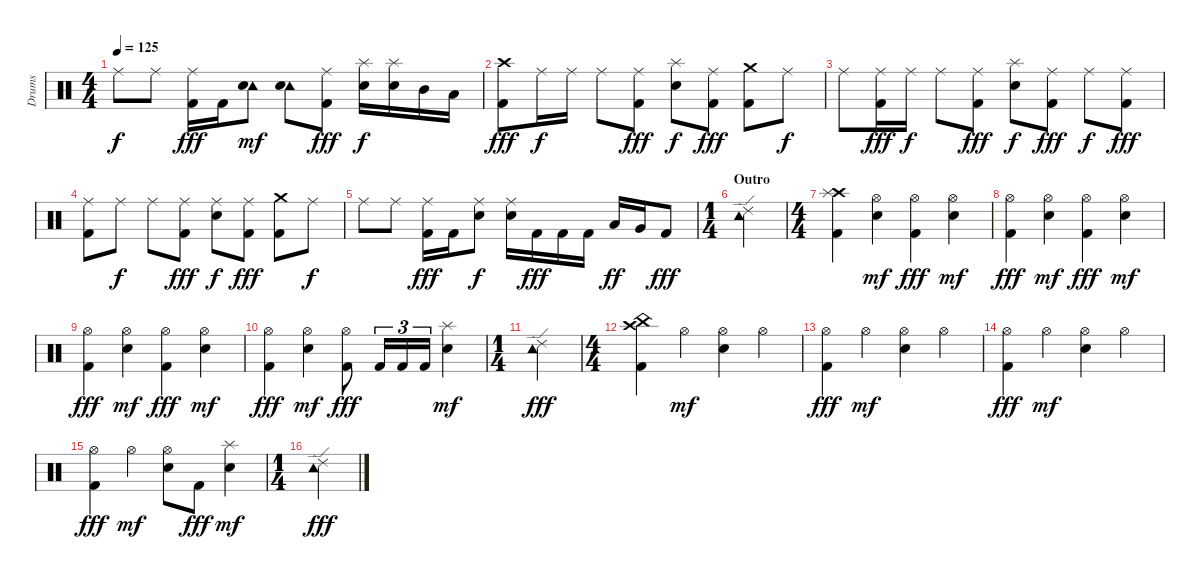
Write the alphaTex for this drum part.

\track ("Drums" "Drums") {instrument percussion}
\staff {score}
\articulation defaults
\ts (4 4)
\tempo 125
\clef neutral
\ks c "Ride (middle)".8{dy f} "Ride (middle)".8
("Ride (middle)" "Kick (hit) 2").16{dy fff} "Kick (hit) 2".16 ("Tambourine (hit)" "Electric Snare (hit)").8{dy mf} ("Tambourine (hit)" "Electric Snare (hit)").8 ("Ride (middle)" "Kick (hit) 2").8{dy fff} ("Splash (hit)" "Electric Snare (hit)").16{dy f} ("Splash (hit)" "Electric Snare (hit)").16 "Mid Tom (hit)".16 "Low Tom (hit)".16 |
("Crash high (hit)" "Kick (hit) 2").8{dy fff} "Ride (middle)".16{dy f} "Ride (middle)".16 "Ride (middle)".8 ("Ride (middle)" "Kick (hit) 2").8{dy fff} ("Splash (hit)" "Electric Snare (hit)").8{dy f} ("Ride (middle)" "Kick (hit) 2").8{dy fff} ("Crash medium (hit)" "Kick (hit) 2").8 "Ride (middle)".8{dy f} |
"Ride (middle)".8 ("Ride (middle)" "Kick (hit) 2").16{dy fff} "Ride (middle)".16{dy f} "Ride (middle)".8 ("Ride (middle)" "Kick (hit) 2").8{dy fff} ("Splash (hit)" "Electric Snare (hit)").8{dy f} ("Ride (middle)" "Kick (hit) 2").8{dy fff} "Ride (middle)".8{dy f} ("Ride (middle)" "Kick (hit) 2").8{dy fff} |
("Ride (middle)" "Kick (hit) 2").8 "Ride (middle)".8{dy f} "Ride (middle)".8 ("Ride (middle)" "Kick (hit) 2").8{dy fff} ("Ride (middle)" "Electric Snare (hit)").8{dy f} ("Ride (middle)" "Kick (hit) 2").8{dy fff} ("Crash medium (hit)" "Kick (hit) 2").8 "Ride (middle)".8{dy f} |
"Ride (middle)".8 "Ride (middle)".8 ("Ride (middle)" "Kick (hit) 2").16{dy fff} "Kick (hit) 2".16 ("Ride (middle)" "Electric Snare (hit)").8{dy f} ("Ride (middle)" "Electric Snare (hit)").16 "Kick (hit) 2".16{dy fff} "Kick (hit) 2".16 "Kick (hit) 2".16 "Low Tom (hit)".16{dy ff} "Very Low Tom (hit)".16 "Kick (hit) 2".8{dy fff} |
\ts (1 4)
\section ("" "Outro")
("Tambourine (hit)" "Ride (edge) 2").4 |
\ts (4 4)
("Crash high (hit)" "Splash (hit)" "Kick (hit) 2").4 ("Hi-Hat (open)" "Electric Snare (hit)").4{dy mf} ("Hi-Hat (open)" "Kick (hit) 2").4{dy fff} ("Hi-Hat (open)" "Electric Snare (hit)").4{dy mf} |
("Hi-Hat (open)" "Kick (hit) 2").4{dy fff} ("Hi-Hat (open)" "Electric Snare (hit)").4{dy mf} ("Hi-Hat (open)" "Kick (hit) 2").4{dy fff} ("Hi-Hat (open)" "Electric Snare (hit)").4{dy mf} |
("Hi-Hat (open)" "Kick (hit) 2").4{dy fff} ("Hi-Hat (open)" "Electric Snare (hit)").4{dy mf} ("Hi-Hat (open)" "Kick (hit) 2").4{dy fff} ("Hi-Hat (open)" "Electric Snare (hit)").4{dy mf} |
("Hi-Hat (open)" "Kick (hit) 2").4{dy fff} ("Hi-Hat (open)" "Electric Snare (hit)").4{dy mf} ("Hi-Hat (open)" "Kick (hit) 2").8{dy fff} "Kick (hit) 2".16{tu (3 2)} "Kick (hit) 2".16{tu (3 2)} "Kick (hit) 2".16{tu (3 2)} ("Splash (hit)" "Electric Snare (hit)").4{dy mf} |
\ts (1 4)
("Tambourine (hit)" "Ride (edge) 2").4{dy fff} |
\ts (4 4)
("Crash high (hit)" "China (hit)" "Kick (hit) 2").4 "Hi-Hat (open)".4{dy mf} ("Hi-Hat (open)" "Electric Snare (hit)").4 "Hi-Hat (open)".4 |
("Hi-Hat (open)" "Kick (hit) 2").4{dy fff} "Hi-Hat (open)".4{dy mf} ("Hi-Hat (open)" "Electric Snare (hit)").4 "Hi-Hat (open)".4 |
("Hi-Hat (open)" "Kick (hit) 2").4{dy fff} "Hi-Hat (open)".4{dy mf} ("Hi-Hat (open)" "Electric Snare (hit)").4 "Hi-Hat (open)".4 |
("Hi-Hat (open)" "Kick (hit) 2").4{dy fff} "Hi-Hat (open)".4{dy mf} ("Hi-Hat (open)" "Electric Snare (hit)").8 "Kick (hit) 2".8{dy fff} ("Splash (hit)" "Electric Snare (hit)").4{dy mf} |
\ts (1 4)
("Tambourine (hit)" "Ride (edge) 2").4{dy fff}
